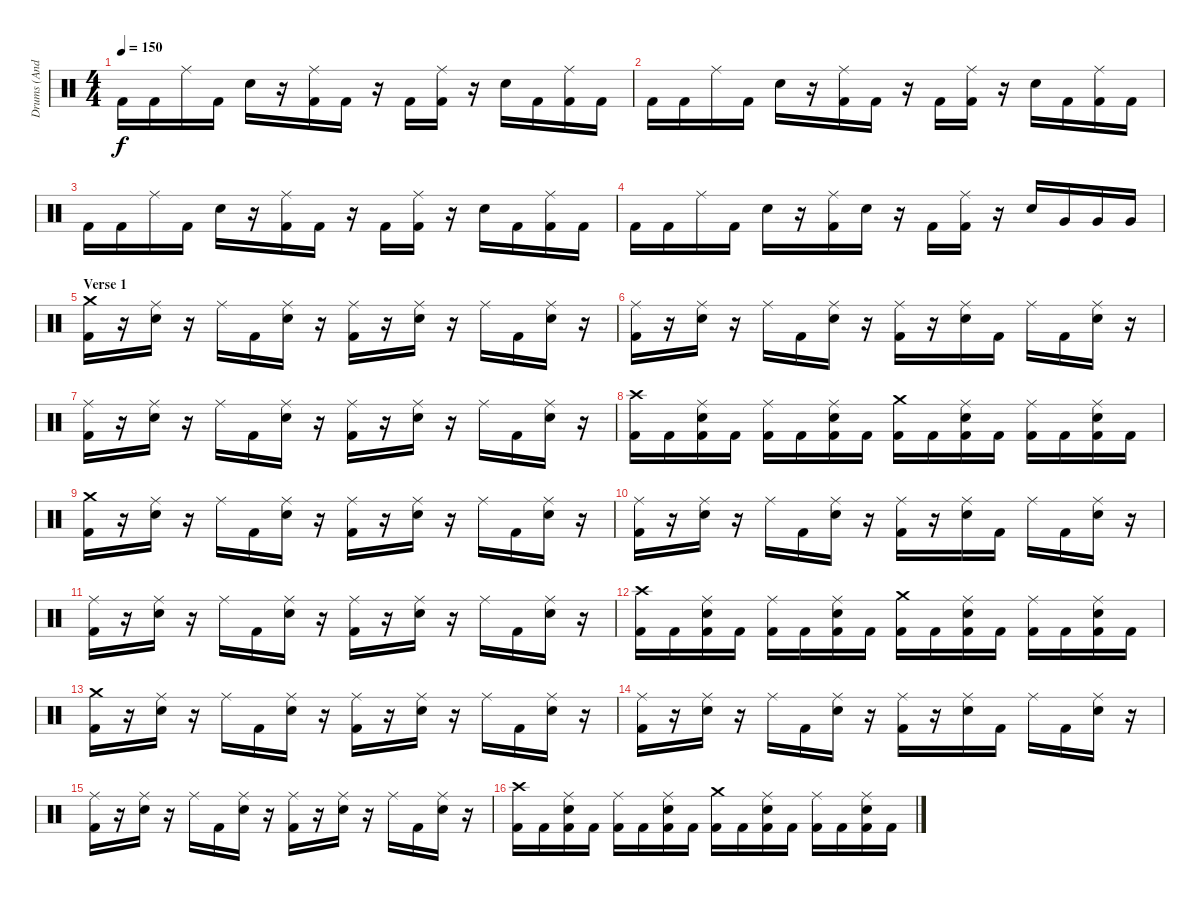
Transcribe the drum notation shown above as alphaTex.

\track ("Drums (Andy C)" "Drums (And") {instrument percussion}
\staff {score}
\articulation defaults
\ts (4 4)
\tempo 150
\clef neutral
\ks c "Kick (hit) 2".16{dy f} "Kick (hit) 2".16 "Ride (middle)".16 "Kick (hit) 2".16 "Electric Snare (hit)".16
r.16 ("Ride (middle)" "Kick (hit) 2").16 "Kick (hit) 2".16 r.16 "Kick (hit) 2".16 ("Ride (middle)" "Kick (hit) 2").16 r.16 "Electric Snare (hit)".16 "Kick (hit) 2".16 ("Ride (middle)" "Kick (hit) 2").16 "Kick (hit) 2".16 |
"Kick (hit) 2".16 "Kick (hit) 2".16 "Ride (middle)".16 "Kick (hit) 2".16 "Electric Snare (hit)".16 r.16 ("Ride (middle)" "Kick (hit) 2").16 "Kick (hit) 2".16 r.16 "Kick (hit) 2".16 ("Ride (middle)" "Kick (hit) 2").16 r.16 "Electric Snare (hit)".16 "Kick (hit) 2".16 ("Ride (middle)" "Kick (hit) 2").16 "Kick (hit) 2".16 |
"Kick (hit) 2".16 "Kick (hit) 2".16 "Ride (middle)".16 "Kick (hit) 2".16 "Electric Snare (hit)".16 r.16 ("Ride (middle)" "Kick (hit) 2").16 "Kick (hit) 2".16 r.16 "Kick (hit) 2".16 ("Ride (middle)" "Kick (hit) 2").16 r.16 "Electric Snare (hit)".16 "Kick (hit) 2".16 ("Ride (middle)" "Kick (hit) 2").16 "Kick (hit) 2".16 |
"Kick (hit) 2".16 "Kick (hit) 2".16 "Ride (middle)".16 "Kick (hit) 2".16 "Electric Snare (hit)".16 r.16 ("Ride (middle)" "Kick (hit) 2").16 "Electric Snare (hit)".16 r.16 "Kick (hit) 2".16 ("Ride (middle)" "Kick (hit) 2").16 r.16 "Electric Snare (hit)".16 "Very Low Tom (hit)".16 "Very Low Tom (hit)".16 "Very Low Tom (hit)".16 |
\section ("" "Verse 1")
("Crash medium (hit)" "Kick (hit) 2").16 r.16 ("Ride (middle)" "Electric Snare (hit)").16 r.16 "Ride (middle)".16 "Kick (hit) 2".16 ("Ride (middle)" "Electric Snare (hit)").16 r.16 ("Ride (middle)" "Kick (hit) 2").16 r.16 ("Ride (middle)" "Electric Snare (hit)").16 r.16 "Ride (middle)".16 "Kick (hit) 2".16 ("Ride (middle)" "Electric Snare (hit)").16 r.16 |
("Ride (middle)" "Kick (hit) 2").16 r.16 ("Ride (middle)" "Electric Snare (hit)").16 r.16 "Ride (middle)".16 "Kick (hit) 2".16 ("Ride (middle)" "Electric Snare (hit)").16 r.16 ("Ride (middle)" "Kick (hit) 2").16 r.16 ("Ride (middle)" "Electric Snare (hit)").16 "Kick (hit) 2".16 "Ride (middle)".16 "Kick (hit) 2".16 ("Ride (middle)" "Electric Snare (hit)").16 r.16 |
("Ride (middle)" "Kick (hit) 2").16 r.16 ("Ride (middle)" "Electric Snare (hit)").16 r.16 "Ride (middle)".16 "Kick (hit) 2".16 ("Ride (middle)" "Electric Snare (hit)").16 r.16 ("Ride (middle)" "Kick (hit) 2").16 r.16 ("Ride (middle)" "Electric Snare (hit)").16 r.16 "Ride (middle)".16 "Kick (hit) 2".16 ("Ride (middle)" "Electric Snare (hit)").16 r.16 |
("Crash high (hit)" "Kick (hit) 2").16 "Kick (hit) 2".16 ("Ride (middle)" "Kick (hit) 2" "Electric Snare (hit)").16 "Kick (hit) 2".16 ("Ride (middle)" "Kick (hit) 2").16 "Kick (hit) 2".16 ("Ride (middle)" "Kick (hit) 2" "Electric Snare (hit)").16 "Kick (hit) 2".16 ("Crash medium (hit)" "Kick (hit) 2").16 "Kick (hit) 2".16 ("Ride (middle)" "Kick (hit) 2" "Electric Snare (hit)").16 "Kick (hit) 2".16 ("Ride (middle)" "Kick (hit) 2").16 "Kick (hit) 2".16 ("Ride (middle)" "Kick (hit) 2" "Electric Snare (hit)").16 "Kick (hit) 2".16 |
("Crash medium (hit)" "Kick (hit) 2").16 r.16 ("Ride (middle)" "Electric Snare (hit)").16 r.16 "Ride (middle)".16 "Kick (hit) 2".16 ("Ride (middle)" "Electric Snare (hit)").16 r.16 ("Ride (middle)" "Kick (hit) 2").16 r.16 ("Ride (middle)" "Electric Snare (hit)").16 r.16 "Ride (middle)".16 "Kick (hit) 2".16 ("Ride (middle)" "Electric Snare (hit)").16 r.16 |
("Ride (middle)" "Kick (hit) 2").16 r.16 ("Ride (middle)" "Electric Snare (hit)").16 r.16 "Ride (middle)".16 "Kick (hit) 2".16 ("Ride (middle)" "Electric Snare (hit)").16 r.16 ("Ride (middle)" "Kick (hit) 2").16 r.16 ("Ride (middle)" "Electric Snare (hit)").16 "Kick (hit) 2".16 "Ride (middle)".16 "Kick (hit) 2".16 ("Ride (middle)" "Electric Snare (hit)").16 r.16 |
("Ride (middle)" "Kick (hit) 2").16 r.16 ("Ride (middle)" "Electric Snare (hit)").16 r.16 "Ride (middle)".16 "Kick (hit) 2".16 ("Ride (middle)" "Electric Snare (hit)").16 r.16 ("Ride (middle)" "Kick (hit) 2").16 r.16 ("Ride (middle)" "Electric Snare (hit)").16 r.16 "Ride (middle)".16 "Kick (hit) 2".16 ("Ride (middle)" "Electric Snare (hit)").16 r.16 |
("Crash high (hit)" "Kick (hit) 2").16 "Kick (hit) 2".16 ("Ride (middle)" "Kick (hit) 2" "Electric Snare (hit)").16 "Kick (hit) 2".16 ("Ride (middle)" "Kick (hit) 2").16 "Kick (hit) 2".16 ("Ride (middle)" "Kick (hit) 2" "Electric Snare (hit)").16 "Kick (hit) 2".16 ("Crash medium (hit)" "Kick (hit) 2").16 "Kick (hit) 2".16 ("Ride (middle)" "Kick (hit) 2" "Electric Snare (hit)").16 "Kick (hit) 2".16 ("Ride (middle)" "Kick (hit) 2").16 "Kick (hit) 2".16 ("Ride (middle)" "Kick (hit) 2" "Electric Snare (hit)").16 "Kick (hit) 2".16 |
("Crash medium (hit)" "Kick (hit) 2").16 r.16 ("Ride (middle)" "Electric Snare (hit)").16 r.16 "Ride (middle)".16 "Kick (hit) 2".16 ("Ride (middle)" "Electric Snare (hit)").16 r.16 ("Ride (middle)" "Kick (hit) 2").16 r.16 ("Ride (middle)" "Electric Snare (hit)").16 r.16 "Ride (middle)".16 "Kick (hit) 2".16 ("Ride (middle)" "Electric Snare (hit)").16 r.16 |
("Ride (middle)" "Kick (hit) 2").16 r.16 ("Ride (middle)" "Electric Snare (hit)").16 r.16 "Ride (middle)".16 "Kick (hit) 2".16 ("Ride (middle)" "Electric Snare (hit)").16 r.16 ("Ride (middle)" "Kick (hit) 2").16 r.16 ("Ride (middle)" "Electric Snare (hit)").16 "Kick (hit) 2".16 "Ride (middle)".16 "Kick (hit) 2".16 ("Ride (middle)" "Electric Snare (hit)").16 r.16 |
("Ride (middle)" "Kick (hit) 2").16 r.16 ("Ride (middle)" "Electric Snare (hit)").16 r.16 "Ride (middle)".16 "Kick (hit) 2".16 ("Ride (middle)" "Electric Snare (hit)").16 r.16 ("Ride (middle)" "Kick (hit) 2").16 r.16 ("Ride (middle)" "Electric Snare (hit)").16 r.16 "Ride (middle)".16 "Kick (hit) 2".16 ("Ride (middle)" "Electric Snare (hit)").16 r.16 |
("Crash high (hit)" "Kick (hit) 2").16 "Kick (hit) 2".16 ("Ride (middle)" "Kick (hit) 2" "Electric Snare (hit)").16 "Kick (hit) 2".16 ("Ride (middle)" "Kick (hit) 2").16 "Kick (hit) 2".16 ("Ride (middle)" "Kick (hit) 2" "Electric Snare (hit)").16 "Kick (hit) 2".16 ("Crash medium (hit)" "Kick (hit) 2").16 "Kick (hit) 2".16 ("Ride (middle)" "Kick (hit) 2" "Electric Snare (hit)").16 "Kick (hit) 2".16 ("Ride (middle)" "Kick (hit) 2").16 "Kick (hit) 2".16 ("Ride (middle)" "Kick (hit) 2" "Electric Snare (hit)").16 "Kick (hit) 2".16
